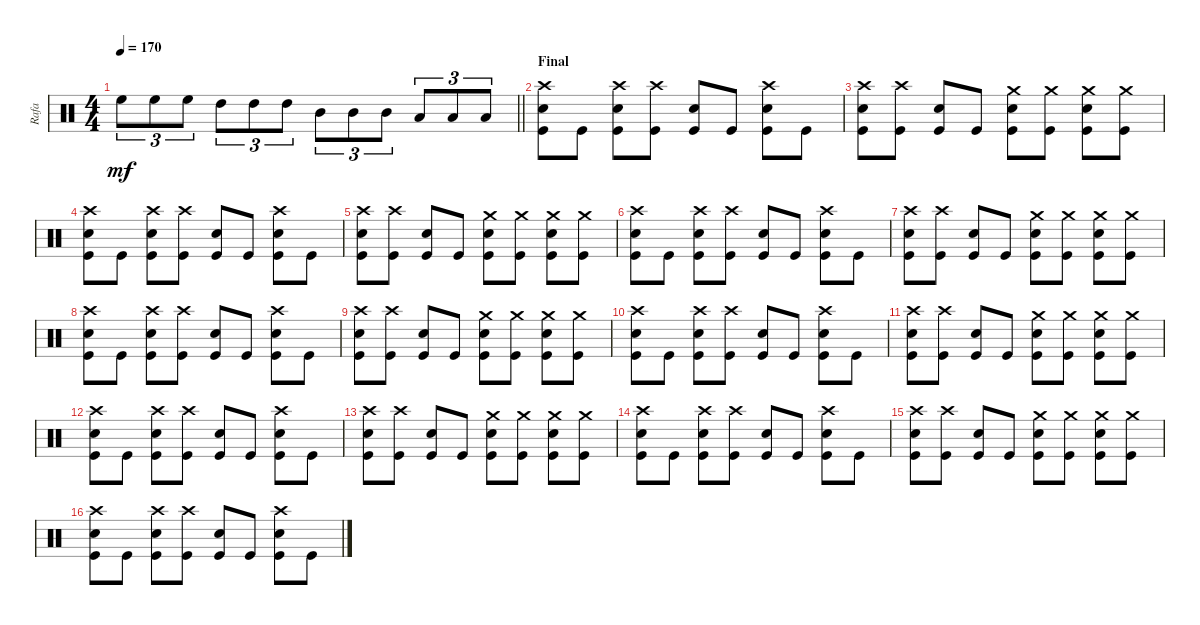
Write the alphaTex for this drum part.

\track ("Rafa" "Rafa") {instrument percussion}
\staff {score}
\articulation defaults
\ts (4 4)
\tempo 170
\clef neutral
\barLineRight lightlight
\ks c "High Floor Tom (hit)".8{tu (3 2) dy mf} "High Floor Tom (hit)".8{tu (3 2)} "High Floor Tom (hit)".8{tu (3 2)} "High Tom (hit)".8{tu (3 2)} "High Tom (hit)".8{tu (3 2)} "High Tom (hit)".8{tu (3 2)} "Mid Tom (hit)".8{tu (3 2)} "Mid Tom (hit)".8{tu (3 2)} "Mid Tom (hit)".8{tu (3 2)} "Low Tom (hit)".8{tu (3 2)} "Low Tom (hit)".8{tu (3 2)} "Low Tom (hit)".8{tu (3 2)}
|
\section ("" "Final")
("Crash high (hit)" "Electric Snare (hit)" "Kick (hit)").8 "Kick (hit)".8 ("Crash high (hit)" "Electric Snare (hit)" "Kick (hit)").8 ("Crash high (hit)" "Kick (hit)").8 ("Electric Snare (hit)" "Kick (hit)").8 "Kick (hit)".8 ("Crash high (hit)" "Electric Snare (hit)" "Kick (hit)").8 "Kick (hit)".8 |
("Crash high (hit)" "Electric Snare (hit)" "Kick (hit)").8 ("Crash high (hit)" "Kick (hit)").8 ("Electric Snare (hit)" "Kick (hit)").8 "Kick (hit)".8 ("Crash medium (hit)" "Electric Snare (hit)" "Kick (hit)").8 ("Crash medium (hit)" "Kick (hit)").8 ("Crash medium (hit)" "Electric Snare (hit)" "Kick (hit)").8 ("Crash medium (hit)" "Kick (hit)").8 |
("Crash high (hit)" "Electric Snare (hit)" "Kick (hit)").8 "Kick (hit)".8 ("Crash high (hit)" "Electric Snare (hit)" "Kick (hit)").8 ("Crash high (hit)" "Kick (hit)").8 ("Electric Snare (hit)" "Kick (hit)").8 "Kick (hit)".8 ("Crash high (hit)" "Electric Snare (hit)" "Kick (hit)").8 "Kick (hit)".8 |
("Crash high (hit)" "Electric Snare (hit)" "Kick (hit)").8 ("Crash high (hit)" "Kick (hit)").8 ("Electric Snare (hit)" "Kick (hit)").8 "Kick (hit)".8 ("Crash medium (hit)" "Electric Snare (hit)" "Kick (hit)").8 ("Crash medium (hit)" "Kick (hit)").8 ("Crash medium (hit)" "Electric Snare (hit)" "Kick (hit)").8 ("Crash medium (hit)" "Kick (hit)").8 |
("Crash high (hit)" "Electric Snare (hit)" "Kick (hit)").8 "Kick (hit)".8 ("Crash high (hit)" "Electric Snare (hit)" "Kick (hit)").8 ("Crash high (hit)" "Kick (hit)").8 ("Electric Snare (hit)" "Kick (hit)").8 "Kick (hit)".8 ("Crash high (hit)" "Electric Snare (hit)" "Kick (hit)").8 "Kick (hit)".8 |
("Crash high (hit)" "Electric Snare (hit)" "Kick (hit)").8 ("Crash high (hit)" "Kick (hit)").8 ("Electric Snare (hit)" "Kick (hit)").8 "Kick (hit)".8 ("Crash medium (hit)" "Electric Snare (hit)" "Kick (hit)").8 ("Crash medium (hit)" "Kick (hit)").8 ("Crash medium (hit)" "Electric Snare (hit)" "Kick (hit)").8 ("Crash medium (hit)" "Kick (hit)").8 |
("Crash high (hit)" "Electric Snare (hit)" "Kick (hit)").8 "Kick (hit)".8 ("Crash high (hit)" "Electric Snare (hit)" "Kick (hit)").8 ("Crash high (hit)" "Kick (hit)").8 ("Electric Snare (hit)" "Kick (hit)").8 "Kick (hit)".8 ("Crash high (hit)" "Electric Snare (hit)" "Kick (hit)").8 "Kick (hit)".8 |
("Crash high (hit)" "Electric Snare (hit)" "Kick (hit)").8 ("Crash high (hit)" "Kick (hit)").8 ("Electric Snare (hit)" "Kick (hit)").8 "Kick (hit)".8 ("Crash medium (hit)" "Electric Snare (hit)" "Kick (hit)").8 ("Crash medium (hit)" "Kick (hit)").8 ("Crash medium (hit)" "Electric Snare (hit)" "Kick (hit)").8 ("Crash medium (hit)" "Kick (hit)").8 |
("Crash high (hit)" "Electric Snare (hit)" "Kick (hit)").8 "Kick (hit)".8 ("Crash high (hit)" "Electric Snare (hit)" "Kick (hit)").8 ("Crash high (hit)" "Kick (hit)").8 ("Electric Snare (hit)" "Kick (hit)").8 "Kick (hit)".8 ("Crash high (hit)" "Electric Snare (hit)" "Kick (hit)").8 "Kick (hit)".8 |
("Crash high (hit)" "Electric Snare (hit)" "Kick (hit)").8 ("Crash high (hit)" "Kick (hit)").8 ("Electric Snare (hit)" "Kick (hit)").8 "Kick (hit)".8 ("Crash medium (hit)" "Electric Snare (hit)" "Kick (hit)").8 ("Crash medium (hit)" "Kick (hit)").8 ("Crash medium (hit)" "Electric Snare (hit)" "Kick (hit)").8 ("Crash medium (hit)" "Kick (hit)").8 |
("Crash high (hit)" "Electric Snare (hit)" "Kick (hit)").8 "Kick (hit)".8 ("Crash high (hit)" "Electric Snare (hit)" "Kick (hit)").8 ("Crash high (hit)" "Kick (hit)").8 ("Electric Snare (hit)" "Kick (hit)").8 "Kick (hit)".8 ("Crash high (hit)" "Electric Snare (hit)" "Kick (hit)").8 "Kick (hit)".8 |
("Crash high (hit)" "Electric Snare (hit)" "Kick (hit)").8 ("Crash high (hit)" "Kick (hit)").8 ("Electric Snare (hit)" "Kick (hit)").8 "Kick (hit)".8 ("Crash medium (hit)" "Electric Snare (hit)" "Kick (hit)").8 ("Crash medium (hit)" "Kick (hit)").8 ("Crash medium (hit)" "Electric Snare (hit)" "Kick (hit)").8 ("Crash medium (hit)" "Kick (hit)").8 |
("Crash high (hit)" "Electric Snare (hit)" "Kick (hit)").8 "Kick (hit)".8 ("Crash high (hit)" "Electric Snare (hit)" "Kick (hit)").8 ("Crash high (hit)" "Kick (hit)").8 ("Electric Snare (hit)" "Kick (hit)").8 "Kick (hit)".8 ("Crash high (hit)" "Electric Snare (hit)" "Kick (hit)").8 "Kick (hit)".8 |
("Crash high (hit)" "Electric Snare (hit)" "Kick (hit)").8 ("Crash high (hit)" "Kick (hit)").8 ("Electric Snare (hit)" "Kick (hit)").8 "Kick (hit)".8 ("Crash medium (hit)" "Electric Snare (hit)" "Kick (hit)").8 ("Crash medium (hit)" "Kick (hit)").8 ("Crash medium (hit)" "Electric Snare (hit)" "Kick (hit)").8 ("Crash medium (hit)" "Kick (hit)").8 |
("Crash high (hit)" "Electric Snare (hit)" "Kick (hit)").8 "Kick (hit)".8 ("Crash high (hit)" "Electric Snare (hit)" "Kick (hit)").8 ("Crash high (hit)" "Kick (hit)").8 ("Electric Snare (hit)" "Kick (hit)").8 "Kick (hit)".8 ("Crash high (hit)" "Electric Snare (hit)" "Kick (hit)").8 "Kick (hit)".8
